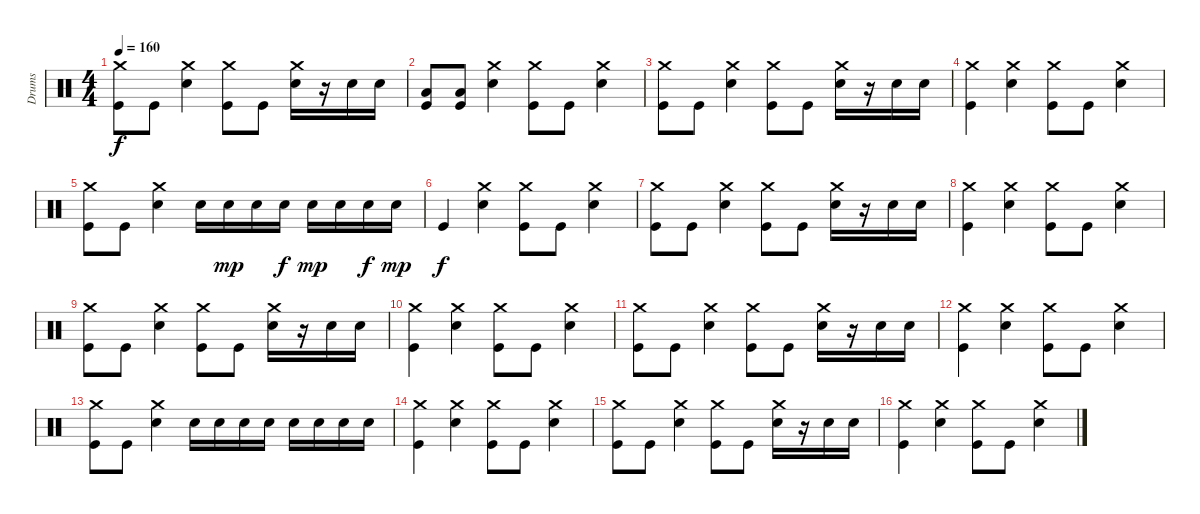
\track ("Drums" "Drums") {instrument percussion}
\staff {score}
\articulation defaults
\ts (4 4)
\tempo 160
\clef neutral
\ks c
("Crash medium (hit)" "Kick (hit)").8{dy f} "Kick (hit)".8 ("Crash medium (hit)" "Electric Snare (hit)").4 ("Crash medium (hit)" "Kick (hit)").8 "Kick (hit)".8 ("Crash medium (hit)" "Electric Snare (hit)").16 r.16 "Electric Snare (hit)".16 "Electric Snare (hit)".16 |
("Low Tom (hit)" "Kick (hit)").8 ("Low Tom (hit)" "Kick (hit)").8 ("Crash medium (hit)" "Electric Snare (hit)").4 ("Crash medium (hit)" "Kick (hit)").8 "Kick (hit)".8 ("Crash medium (hit)" "Electric Snare (hit)").4 |
("Crash medium (hit)" "Kick (hit)").8 "Kick (hit)".8 ("Crash medium (hit)" "Electric Snare (hit)").4 ("Crash medium (hit)" "Kick (hit)").8 "Kick (hit)".8 ("Crash medium (hit)" "Electric Snare (hit)").16 r.16 "Electric Snare (hit)".16 "Electric Snare (hit)".16 |
("Crash medium (hit)" "Kick (hit)").4 ("Crash medium (hit)" "Electric Snare (hit)").4 ("Crash medium (hit)" "Kick (hit)").8 "Kick (hit)".8 ("Crash medium (hit)" "Electric Snare (hit)").4 |
("Crash medium (hit)" "Kick (hit)").8 "Kick (hit)".8 ("Crash medium (hit)" "Electric Snare (hit)").4 "Electric Snare (hit)".16 "Electric Snare (hit)".16{dy mp} "Electric Snare (hit)".16 "Electric Snare (hit)".16{dy f} "Electric Snare (hit)".16{dy mp} "Electric Snare (hit)".16 "Electric Snare (hit)".16{dy f} "Electric Snare (hit)".16{dy mp} |
"Kick (hit)".4{dy f} ("Crash medium (hit)" "Electric Snare (hit)").4 ("Crash medium (hit)" "Kick (hit)").8 "Kick (hit)".8 ("Crash medium (hit)" "Electric Snare (hit)").4 |
("Crash medium (hit)" "Kick (hit)").8 "Kick (hit)".8 ("Crash medium (hit)" "Electric Snare (hit)").4 ("Crash medium (hit)" "Kick (hit)").8 "Kick (hit)".8 ("Crash medium (hit)" "Electric Snare (hit)").16 r.16 "Electric Snare (hit)".16 "Electric Snare (hit)".16 |
("Crash medium (hit)" "Kick (hit)").4 ("Crash medium (hit)" "Electric Snare (hit)").4 ("Crash medium (hit)" "Kick (hit)").8 "Kick (hit)".8 ("Crash medium (hit)" "Electric Snare (hit)").4 |
("Crash medium (hit)" "Kick (hit)").8 "Kick (hit)".8 ("Crash medium (hit)" "Electric Snare (hit)").4 ("Crash medium (hit)" "Kick (hit)").8 "Kick (hit)".8 ("Crash medium (hit)" "Electric Snare (hit)").16 r.16 "Electric Snare (hit)".16 "Electric Snare (hit)".16 |
("Crash medium (hit)" "Kick (hit)").4 ("Crash medium (hit)" "Electric Snare (hit)").4 ("Crash medium (hit)" "Kick (hit)").8 "Kick (hit)".8 ("Crash medium (hit)" "Electric Snare (hit)").4 |
("Crash medium (hit)" "Kick (hit)").8 "Kick (hit)".8 ("Crash medium (hit)" "Electric Snare (hit)").4 ("Crash medium (hit)" "Kick (hit)").8 "Kick (hit)".8 ("Crash medium (hit)" "Electric Snare (hit)").16 r.16 "Electric Snare (hit)".16 "Electric Snare (hit)".16 |
("Crash medium (hit)" "Kick (hit)").4 ("Crash medium (hit)" "Electric Snare (hit)").4 ("Crash medium (hit)" "Kick (hit)").8 "Kick (hit)".8 ("Crash medium (hit)" "Electric Snare (hit)").4 |
("Crash medium (hit)" "Kick (hit)").8 "Kick (hit)".8 ("Crash medium (hit)" "Electric Snare (hit)").4 "Electric Snare (hit)".16 "Electric Snare (hit)".16 "Electric Snare (hit)".16 "Electric Snare (hit)".16 "Electric Snare (hit)".16 "Electric Snare (hit)".16 "Electric Snare (hit)".16 "Electric Snare (hit)".16 |
("Crash medium (hit)" "Kick (hit)").4 ("Crash medium (hit)" "Electric Snare (hit)").4 ("Crash medium (hit)" "Kick (hit)").8 "Kick (hit)".8 ("Crash medium (hit)" "Electric Snare (hit)").4 |
("Crash medium (hit)" "Kick (hit)").8 "Kick (hit)".8 ("Crash medium (hit)" "Electric Snare (hit)").4 ("Crash medium (hit)" "Kick (hit)").8 "Kick (hit)".8 ("Crash medium (hit)" "Electric Snare (hit)").16 r.16 "Electric Snare (hit)".16 "Electric Snare (hit)".16 |
("Crash medium (hit)" "Kick (hit)").4 ("Crash medium (hit)" "Electric Snare (hit)").4 ("Crash medium (hit)" "Kick (hit)").8 "Kick (hit)".8 ("Crash medium (hit)" "Electric Snare (hit)").4
